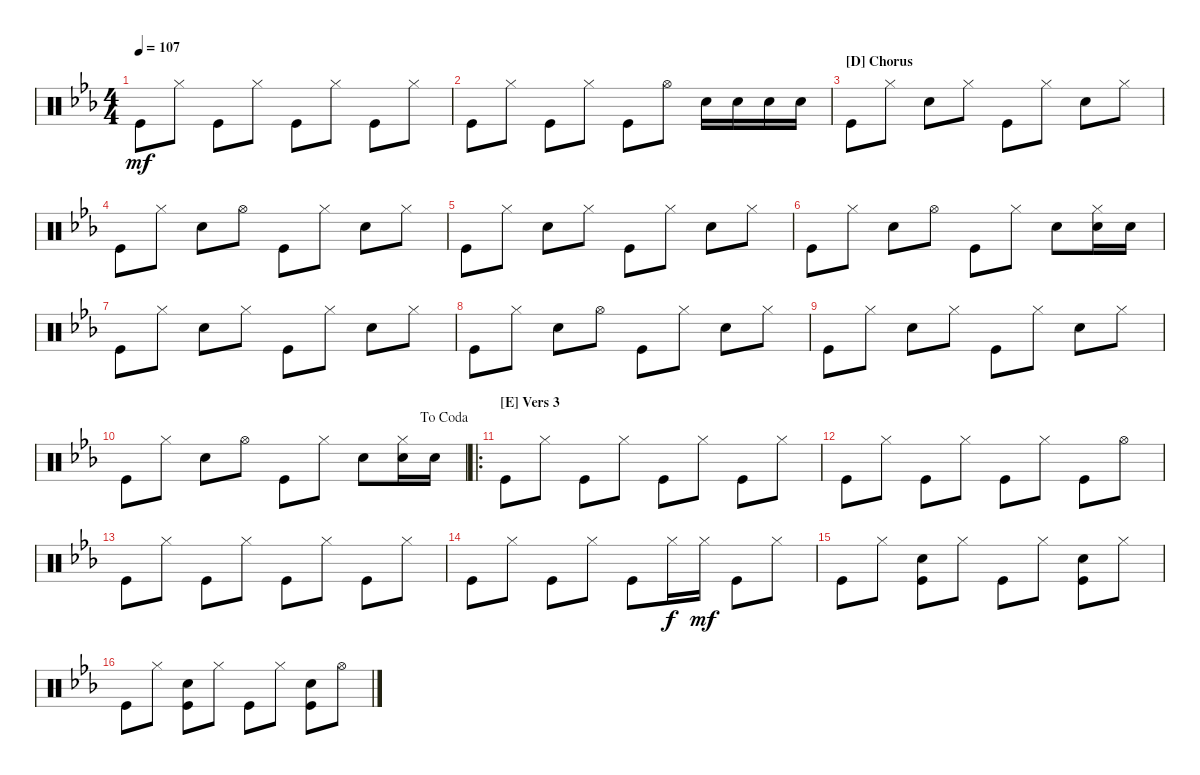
\defaultSystemsLayout 4
\bracketExtendMode groupsimilarinstruments
\singleTrackTrackNamePolicy hidden
\firstSystemTrackNameOrientation horizontal
\otherSystemsTrackNameOrientation horizontal
\chordDiagramsInScore
\track ("Drumkit" "Drums") {instrument percussion}
\staff {score}
\articulation defaults
\ts (4 4)
\tempo 107
\clef neutral
\ks cminor "Kick (hit)".8{dy mf} "Hi-Hat (closed)".8 "Kick (hit)".8 "Hi-Hat (closed)".8 "Kick (hit)".8 "Hi-Hat (closed)".8 "Kick (hit)".8 "Hi-Hat (closed)".8
|
"Kick (hit)".8 "Hi-Hat (closed)".8 "Kick (hit)".8 "Hi-Hat (closed)".8 "Kick (hit)".8 "Hi-Hat (open)".8 "Snare (hit) 2".16 "Snare (hit) 2".16 "Snare (hit) 2".16 "Snare (hit) 2".16 |
\section ("D" "Chorus")
"Kick (hit)".8 "Hi-Hat (closed)".8 "Snare (hit) 2".8 "Hi-Hat (closed)".8 "Kick (hit)".8 "Hi-Hat (closed)".8 "Snare (hit) 2".8 "Hi-Hat (closed)".8 |
"Kick (hit)".8 "Hi-Hat (closed)".8 "Snare (hit) 2".8 "Hi-Hat (open)".8 "Kick (hit)".8 "Hi-Hat (closed)".8 "Snare (hit) 2".8 "Hi-Hat (closed)".8 |
"Kick (hit)".8 "Hi-Hat (closed)".8 "Snare (hit) 2".8 "Hi-Hat (closed)".8 "Kick (hit)".8 "Hi-Hat (closed)".8 "Snare (hit) 2".8 "Hi-Hat (closed)".8 |
"Kick (hit)".8 "Hi-Hat (closed)".8 "Snare (hit) 2".8 "Hi-Hat (open)".8 "Kick (hit)".8 "Hi-Hat (closed)".8 "Snare (hit) 2".8 ("Hi-Hat (closed)" "Snare (hit) 2").16 "Snare (hit) 2".16 |
"Kick (hit)".8 "Hi-Hat (closed)".8 "Snare (hit) 2".8 "Hi-Hat (closed)".8 "Kick (hit)".8 "Hi-Hat (closed)".8 "Snare (hit) 2".8 "Hi-Hat (closed)".8 |
"Kick (hit)".8 "Hi-Hat (closed)".8 "Snare (hit) 2".8 "Hi-Hat (open)".8 "Kick (hit)".8 "Hi-Hat (closed)".8 "Snare (hit) 2".8 "Hi-Hat (closed)".8 |
"Kick (hit)".8 "Hi-Hat (closed)".8 "Snare (hit) 2".8 "Hi-Hat (closed)".8 "Kick (hit)".8 "Hi-Hat (closed)".8 "Snare (hit) 2".8 "Hi-Hat (closed)".8 |
\jump dacoda "Kick (hit)".8 "Hi-Hat (closed)".8 "Snare (hit) 2".8 "Hi-Hat (open)".8 "Kick (hit)".8 "Hi-Hat (closed)".8 "Snare (hit) 2".8
("Hi-Hat (closed)" "Snare (hit) 2").16 "Snare (hit) 2".16 |
\ro
\section ("E" "Vers 3")
"Kick (hit)".8 "Hi-Hat (closed)".8 "Kick (hit)".8 "Hi-Hat (closed)".8 "Kick (hit)".8 "Hi-Hat (closed)".8 "Kick (hit)".8 "Hi-Hat (closed)".8 |
"Kick (hit)".8 "Hi-Hat (closed)".8 "Kick (hit)".8 "Hi-Hat (closed)".8 "Kick (hit)".8 "Hi-Hat (closed)".8 "Kick (hit)".8 "Hi-Hat (open)".8 |
"Kick (hit)".8 "Hi-Hat (closed)".8 "Kick (hit)".8 "Hi-Hat (closed)".8 "Kick (hit)".8 "Hi-Hat (closed)".8 "Kick (hit)".8 "Hi-Hat (closed)".8 |
"Kick (hit)".8 "Hi-Hat (closed)".8 "Kick (hit)".8 "Hi-Hat (closed)".8 "Kick (hit)".8 "Hi-Hat (closed)".16{dy f} "Hi-Hat (closed)".16{dy mf} "Kick (hit)".8 "Hi-Hat (closed)".8 |
"Kick (hit)".8 "Hi-Hat (closed)".8 ("Kick (hit)" "Snare (hit) 2").8 "Hi-Hat (closed)".8 "Kick (hit)".8 "Hi-Hat (closed)".8 ("Kick (hit)" "Snare (hit) 2").8 "Hi-Hat (closed)".8 |
"Kick (hit)".8 "Hi-Hat (closed)".8 ("Kick (hit)" "Snare (hit) 2").8 "Hi-Hat (closed)".8 "Kick (hit)".8 "Hi-Hat (closed)".8 ("Kick (hit)" "Snare (hit) 2").8 "Hi-Hat (open)".8
